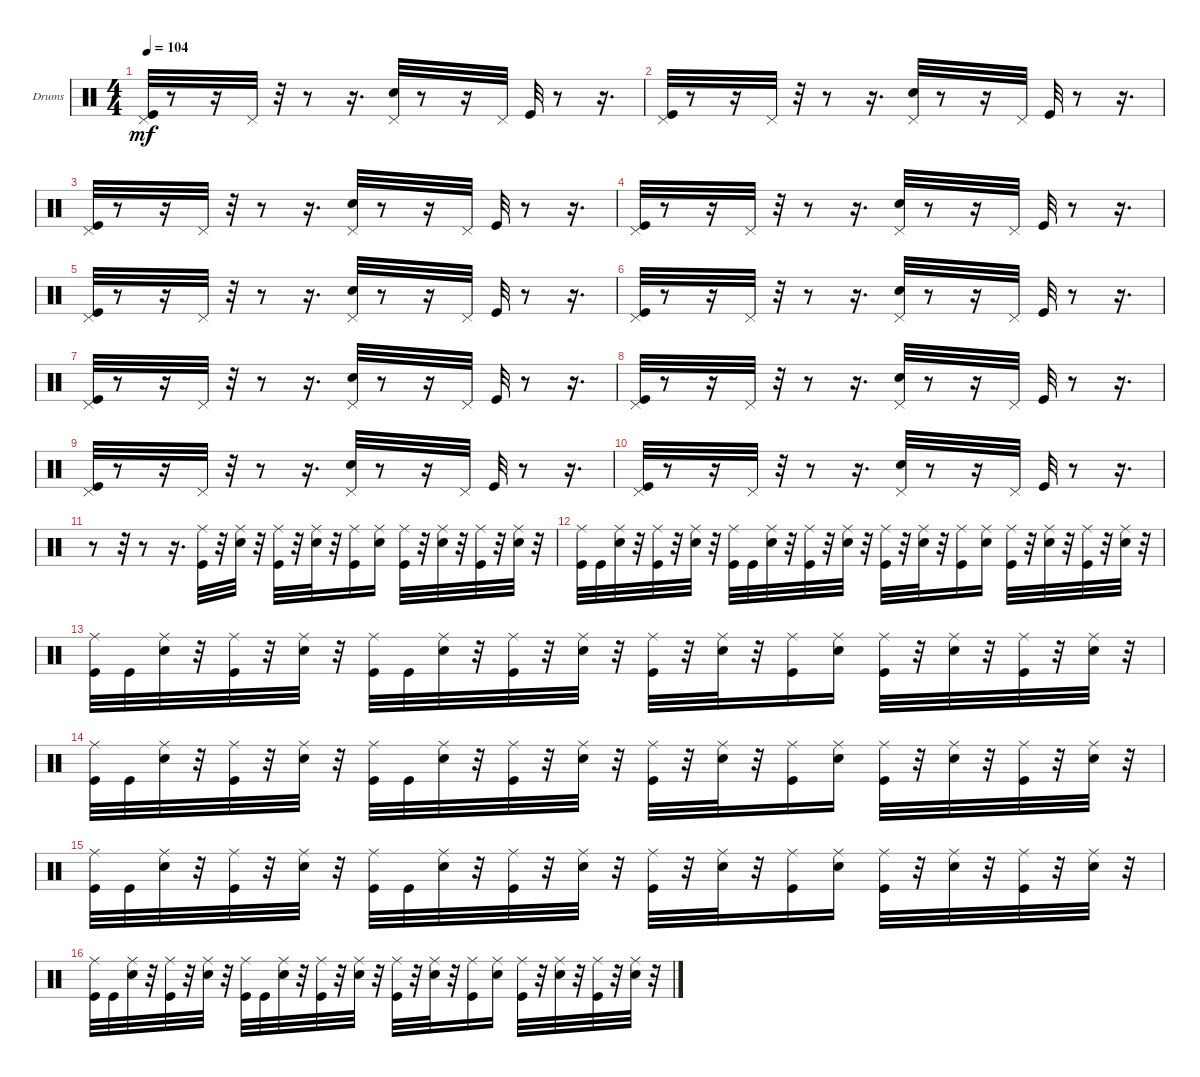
\bracketExtendMode groupsimilarinstruments
\firstSystemTrackNameOrientation horizontal
\otherSystemsTrackNameOrientation horizontal
\track ("diviners drum" "Drums") {instrument percussion}
\staff {score}
\articulation defaults
\ts (4 4)
\tempo 104
\clef neutral
\ks c
("Kick (hit)" "Pedal Hi-Hat (hit)").32{dy mf} r.8 r.16 "Pedal Hi-Hat (hit)".32 r.32 r.8 r.16{d} ("Snare (hit) 2" "Pedal Hi-Hat (hit)").32 r.8 r.16 "Pedal Hi-Hat (hit)".32 "Kick (hit)".32 r.8 r.16{d} |
("Kick (hit)" "Pedal Hi-Hat (hit)").32 r.8 r.16 "Pedal Hi-Hat (hit)".32 r.32 r.8 r.16{d} ("Snare (hit) 2" "Pedal Hi-Hat (hit)").32 r.8 r.16 "Pedal Hi-Hat (hit)".32 "Kick (hit)".32 r.8 r.16{d} |
("Kick (hit)" "Pedal Hi-Hat (hit)").32 r.8 r.16 "Pedal Hi-Hat (hit)".32 r.32 r.8 r.16{d} ("Snare (hit) 2" "Pedal Hi-Hat (hit)").32 r.8 r.16 "Pedal Hi-Hat (hit)".32 "Kick (hit)".32 r.8 r.16{d} |
("Kick (hit)" "Pedal Hi-Hat (hit)").32 r.8 r.16 "Pedal Hi-Hat (hit)".32 r.32 r.8 r.16{d} ("Snare (hit) 2" "Pedal Hi-Hat (hit)").32 r.8 r.16 "Pedal Hi-Hat (hit)".32 "Kick (hit)".32 r.8 r.16{d} |
("Kick (hit)" "Pedal Hi-Hat (hit)").32 r.8 r.16 "Pedal Hi-Hat (hit)".32 r.32 r.8 r.16{d} ("Snare (hit) 2" "Pedal Hi-Hat (hit)").32 r.8 r.16 "Pedal Hi-Hat (hit)".32 "Kick (hit)".32 r.8 r.16{d} |
("Kick (hit)" "Pedal Hi-Hat (hit)").32 r.8 r.16 "Pedal Hi-Hat (hit)".32 r.32 r.8 r.16{d} ("Snare (hit) 2" "Pedal Hi-Hat (hit)").32 r.8 r.16 "Pedal Hi-Hat (hit)".32 "Kick (hit)".32 r.8 r.16{d} |
("Kick (hit)" "Pedal Hi-Hat (hit)").32 r.8 r.16 "Pedal Hi-Hat (hit)".32 r.32 r.8 r.16{d} ("Snare (hit) 2" "Pedal Hi-Hat (hit)").32 r.8 r.16 "Pedal Hi-Hat (hit)".32 "Kick (hit)".32 r.8 r.16{d} |
("Kick (hit)" "Pedal Hi-Hat (hit)").32 r.8 r.16 "Pedal Hi-Hat (hit)".32 r.32 r.8 r.16{d} ("Snare (hit) 2" "Pedal Hi-Hat (hit)").32 r.8 r.16 "Pedal Hi-Hat (hit)".32 "Kick (hit)".32 r.8 r.16{d} |
("Kick (hit)" "Pedal Hi-Hat (hit)").32 r.8 r.16 "Pedal Hi-Hat (hit)".32 r.32 r.8 r.16{d} ("Snare (hit) 2" "Pedal Hi-Hat (hit)").32 r.8 r.16 "Pedal Hi-Hat (hit)".32 "Kick (hit)".32 r.8 r.16{d} |
("Kick (hit)" "Pedal Hi-Hat (hit)").32 r.8 r.16 "Pedal Hi-Hat (hit)".32 r.32 r.8 r.16{d} ("Snare (hit) 2" "Pedal Hi-Hat (hit)").32 r.8 r.16 "Pedal Hi-Hat (hit)".32 "Kick (hit)".32 r.8 r.16{d} |
r.8 r.32 r.8 r.16{d} ("Kick (hit)" "Ride (middle)").32 r.32 ("Snare (hit) 2" "Ride (middle)").32 r.32 ("Kick (hit)" "Ride (middle)").32 r.32 ("Snare (hit) 2" "Ride (middle)").32 r.32 ("Kick (hit)" "Ride (middle)").16 ("Snare (hit) 2" "Ride (middle)").16 ("Kick (hit)" "Ride (middle)").32 r.32 ("Snare (hit) 2" "Ride (middle)").32 r.32 ("Kick (hit)" "Ride (middle)").32 r.32 ("Snare (hit) 2" "Ride (middle)").32 r.32 |
("Kick (hit)" "Ride (middle)").32 "Kick (hit)".32 ("Snare (hit) 2" "Ride (middle)").32 r.32 ("Kick (hit)" "Ride (middle)").32 r.32 ("Snare (hit) 2" "Ride (middle)").32 r.32 ("Kick (hit)" "Ride (middle)").32 "Kick (hit)".32 ("Snare (hit) 2" "Ride (middle)").32 r.32 ("Kick (hit)" "Ride (middle)").32 r.32 ("Snare (hit) 2" "Ride (middle)").32 r.32 ("Kick (hit)" "Ride (middle)").32 r.32 ("Snare (hit) 2" "Ride (middle)").32 r.32 ("Kick (hit)" "Ride (middle)").16 ("Snare (hit) 2" "Ride (middle)").16 ("Kick (hit)" "Ride (middle)").32 r.32 ("Snare (hit) 2" "Ride (middle)").32 r.32 ("Kick (hit)" "Ride (middle)").32 r.32 ("Snare (hit) 2" "Ride (middle)").32 r.32 |
("Kick (hit)" "Ride (middle)").32 "Kick (hit)".32 ("Snare (hit) 2" "Ride (middle)").32 r.32 ("Kick (hit)" "Ride (middle)").32 r.32 ("Snare (hit) 2" "Ride (middle)").32 r.32 ("Kick (hit)" "Ride (middle)").32 "Kick (hit)".32 ("Snare (hit) 2" "Ride (middle)").32 r.32 ("Kick (hit)" "Ride (middle)").32 r.32 ("Snare (hit) 2" "Ride (middle)").32 r.32 ("Kick (hit)" "Ride (middle)").32 r.32 ("Snare (hit) 2" "Ride (middle)").32 r.32 ("Kick (hit)" "Ride (middle)").16 ("Snare (hit) 2" "Ride (middle)").16 ("Kick (hit)" "Ride (middle)").32 r.32 ("Snare (hit) 2" "Ride (middle)").32 r.32 ("Kick (hit)" "Ride (middle)").32 r.32 ("Snare (hit) 2" "Ride (middle)").32 r.32 |
("Kick (hit)" "Ride (middle)").32 "Kick (hit)".32 ("Snare (hit) 2" "Ride (middle)").32 r.32 ("Kick (hit)" "Ride (middle)").32 r.32 ("Snare (hit) 2" "Ride (middle)").32 r.32 ("Kick (hit)" "Ride (middle)").32 "Kick (hit)".32 ("Snare (hit) 2" "Ride (middle)").32 r.32 ("Kick (hit)" "Ride (middle)").32 r.32 ("Snare (hit) 2" "Ride (middle)").32 r.32 ("Kick (hit)" "Ride (middle)").32 r.32 ("Snare (hit) 2" "Ride (middle)").32 r.32 ("Kick (hit)" "Ride (middle)").16 ("Snare (hit) 2" "Ride (middle)").16 ("Kick (hit)" "Ride (middle)").32 r.32 ("Snare (hit) 2" "Ride (middle)").32 r.32 ("Kick (hit)" "Ride (middle)").32 r.32 ("Snare (hit) 2" "Ride (middle)").32 r.32 |
("Kick (hit)" "Ride (middle)").32 "Kick (hit)".32 ("Snare (hit) 2" "Ride (middle)").32 r.32 ("Kick (hit)" "Ride (middle)").32 r.32 ("Snare (hit) 2" "Ride (middle)").32 r.32 ("Kick (hit)" "Ride (middle)").32 "Kick (hit)".32 ("Snare (hit) 2" "Ride (middle)").32 r.32 ("Kick (hit)" "Ride (middle)").32 r.32 ("Snare (hit) 2" "Ride (middle)").32 r.32 ("Kick (hit)" "Ride (middle)").32 r.32 ("Snare (hit) 2" "Ride (middle)").32 r.32 ("Kick (hit)" "Ride (middle)").16 ("Snare (hit) 2" "Ride (middle)").16 ("Kick (hit)" "Ride (middle)").32 r.32 ("Snare (hit) 2" "Ride (middle)").32 r.32 ("Kick (hit)" "Ride (middle)").32 r.32 ("Snare (hit) 2" "Ride (middle)").32 r.32 |
("Kick (hit)" "Ride (middle)").32 "Kick (hit)".32 ("Snare (hit) 2" "Ride (middle)").32 r.32 ("Kick (hit)" "Ride (middle)").32 r.32 ("Snare (hit) 2" "Ride (middle)").32 r.32 ("Kick (hit)" "Ride (middle)").32 "Kick (hit)".32 ("Snare (hit) 2" "Ride (middle)").32 r.32 ("Kick (hit)" "Ride (middle)").32 r.32 ("Snare (hit) 2" "Ride (middle)").32 r.32 ("Kick (hit)" "Ride (middle)").32 r.32 ("Snare (hit) 2" "Ride (middle)").32 r.32 ("Kick (hit)" "Ride (middle)").16 ("Snare (hit) 2" "Ride (middle)").16 ("Kick (hit)" "Ride (middle)").32 r.32 ("Snare (hit) 2" "Ride (middle)").32 r.32 ("Kick (hit)" "Ride (middle)").32 r.32 ("Snare (hit) 2" "Ride (middle)").32 r.32
